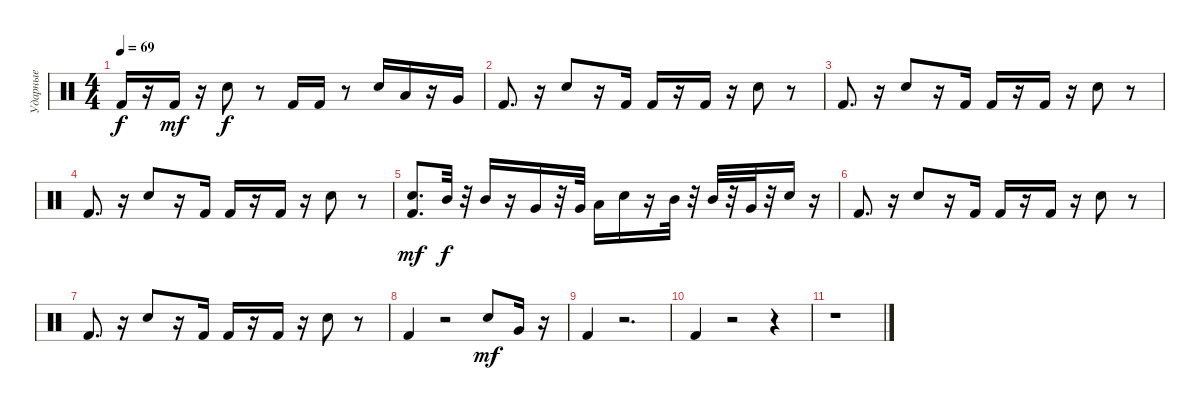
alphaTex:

\track ("Ударные" "Ударные") {instrument percussion}
\staff {score}
\articulation defaults
\ts (4 4)
\tempo 69
\clef neutral
\ks c "Kick (hit) 2".16{dy f}
r.16 "Kick (hit) 2".16{dy mf} r.16 "Snare (hit) 2".8{dy f} r.8 "Kick (hit) 2".16 "Kick (hit) 2".16 r.8 "Snare (hit) 2".16 "Low Tom (hit)".16 r.16 "Very Low Tom (hit)".16 |
"Kick (hit) 2".8{d} r.16 "Snare (hit) 2".8 r.16 "Kick (hit) 2".16 "Kick (hit) 2".16 r.16 "Kick (hit) 2".16 r.16 "Snare (hit) 2".8 r.8 |
"Kick (hit) 2".8{d} r.16 "Snare (hit) 2".8 r.16 "Kick (hit) 2".16 "Kick (hit) 2".16 r.16 "Kick (hit) 2".16 r.16 "Snare (hit) 2".8 r.8 |
"Kick (hit) 2".8{d} r.16 "Snare (hit) 2".8 r.16 "Kick (hit) 2".16 "Kick (hit) 2".16 r.16 "Kick (hit) 2".16 r.16 "Snare (hit) 2".8 r.8 |
("Kick (hit) 2" "Snare (hit) 2").8{d dy mf} "Mid Tom (hit)".32{dy f} r.32 "Mid Tom (hit)".16 r.16 "Very Low Tom (hit)".16 r.32 "Very Low Tom (hit)".32 "Low Tom (hit)".16 "Snare (hit) 2".16 r.16 "Mid Tom (hit)".32 r.32 "Mid Tom (hit)".32 r.32 "Very Low Tom (hit)".32 r.32 "Snare (hit) 2".16 r.16 |
"Kick (hit) 2".8{d} r.16 "Snare (hit) 2".8 r.16 "Kick (hit) 2".16 "Kick (hit) 2".16 r.16 "Kick (hit) 2".16 r.16 "Snare (hit) 2".8 r.8 |
"Kick (hit) 2".8{d} r.16 "Snare (hit) 2".8 r.16 "Kick (hit) 2".16 "Kick (hit) 2".16 r.16 "Kick (hit) 2".16 r.16 "Snare (hit) 2".8 r.8 |
"Kick (hit) 2".4 r.2 "Snare (hit) 2".8{dy mf} "Very Low Tom (hit)".16 r.16 |
"Kick (hit) 2".4 r.2{d} |
"Kick (hit) 2".4 r.2 r.4 |
r.1
